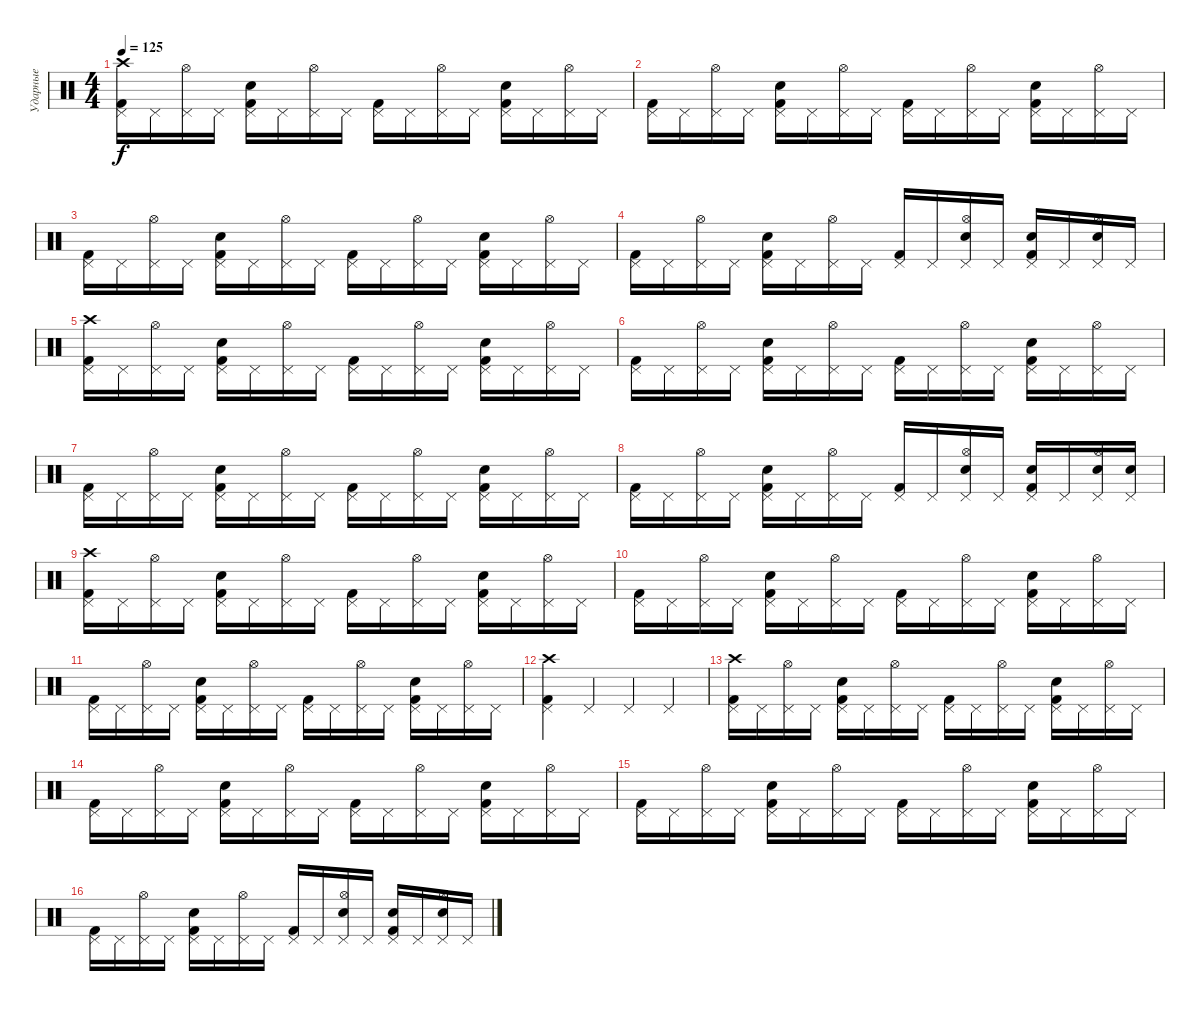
\track ("Ударные" "Ударные") {instrument percussion}
\staff {score}
\articulation defaults
\ts (4 4)
\tempo 125
\clef neutral
\ks c
("Kick (hit) 2" "Pedal Hi-Hat (hit)" "Crash high (hit)").16{dy f} "Pedal Hi-Hat (hit)".16 ("Pedal Hi-Hat (hit)" "Hi-Hat (open)").16 "Pedal Hi-Hat (hit)".16 ("Kick (hit) 2" "Pedal Hi-Hat (hit)" "Snare (hit) 2").16 "Pedal Hi-Hat (hit)".16 ("Pedal Hi-Hat (hit)" "Hi-Hat (open)").16 "Pedal Hi-Hat (hit)".16 ("Kick (hit) 2" "Pedal Hi-Hat (hit)").16 "Pedal Hi-Hat (hit)".16 ("Pedal Hi-Hat (hit)" "Hi-Hat (open)").16 "Pedal Hi-Hat (hit)".16 ("Kick (hit) 2" "Pedal Hi-Hat (hit)" "Snare (hit) 2").16 "Pedal Hi-Hat (hit)".16 ("Pedal Hi-Hat (hit)" "Hi-Hat (open)").16 "Pedal Hi-Hat (hit)".16 |
("Kick (hit) 2" "Pedal Hi-Hat (hit)").16 "Pedal Hi-Hat (hit)".16 ("Pedal Hi-Hat (hit)" "Hi-Hat (open)").16 "Pedal Hi-Hat (hit)".16 ("Kick (hit) 2" "Pedal Hi-Hat (hit)" "Snare (hit) 2").16 "Pedal Hi-Hat (hit)".16 ("Pedal Hi-Hat (hit)" "Hi-Hat (open)").16 "Pedal Hi-Hat (hit)".16 ("Kick (hit) 2" "Pedal Hi-Hat (hit)").16 "Pedal Hi-Hat (hit)".16 ("Pedal Hi-Hat (hit)" "Hi-Hat (open)").16 "Pedal Hi-Hat (hit)".16 ("Kick (hit) 2" "Pedal Hi-Hat (hit)" "Snare (hit) 2").16 "Pedal Hi-Hat (hit)".16 ("Pedal Hi-Hat (hit)" "Hi-Hat (open)").16 "Pedal Hi-Hat (hit)".16 |
("Kick (hit) 2" "Pedal Hi-Hat (hit)").16 "Pedal Hi-Hat (hit)".16 ("Pedal Hi-Hat (hit)" "Hi-Hat (open)").16 "Pedal Hi-Hat (hit)".16 ("Kick (hit) 2" "Pedal Hi-Hat (hit)" "Snare (hit) 2").16 "Pedal Hi-Hat (hit)".16 ("Pedal Hi-Hat (hit)" "Hi-Hat (open)").16 "Pedal Hi-Hat (hit)".16 ("Kick (hit) 2" "Pedal Hi-Hat (hit)").16 "Pedal Hi-Hat (hit)".16 ("Pedal Hi-Hat (hit)" "Hi-Hat (open)").16 "Pedal Hi-Hat (hit)".16 ("Kick (hit) 2" "Pedal Hi-Hat (hit)" "Snare (hit) 2").16 "Pedal Hi-Hat (hit)".16 ("Pedal Hi-Hat (hit)" "Hi-Hat (open)").16 "Pedal Hi-Hat (hit)".16 |
("Kick (hit) 2" "Pedal Hi-Hat (hit)").16 "Pedal Hi-Hat (hit)".16 ("Pedal Hi-Hat (hit)" "Hi-Hat (open)").16 "Pedal Hi-Hat (hit)".16 ("Kick (hit) 2" "Pedal Hi-Hat (hit)" "Snare (hit) 2").16 "Pedal Hi-Hat (hit)".16 ("Pedal Hi-Hat (hit)" "Hi-Hat (open)").16 "Pedal Hi-Hat (hit)".16 ("Kick (hit) 2" "Pedal Hi-Hat (hit)").16 "Pedal Hi-Hat (hit)".16 ("Pedal Hi-Hat (hit)" "Snare (hit) 2" "Hi-Hat (open)").16 "Pedal Hi-Hat (hit)".16 ("Kick (hit) 2" "Pedal Hi-Hat (hit)" "Snare (hit) 2").16 "Pedal Hi-Hat (hit)".16 ("Pedal Hi-Hat (hit)" "Snare (hit) 2" "Hi-Hat (open)").16 "Pedal Hi-Hat (hit)".16 |
("Kick (hit) 2" "Pedal Hi-Hat (hit)" "Crash high (hit)").16 "Pedal Hi-Hat (hit)".16 ("Pedal Hi-Hat (hit)" "Hi-Hat (open)").16 "Pedal Hi-Hat (hit)".16 ("Kick (hit) 2" "Pedal Hi-Hat (hit)" "Snare (hit) 2").16 "Pedal Hi-Hat (hit)".16 ("Pedal Hi-Hat (hit)" "Hi-Hat (open)").16 "Pedal Hi-Hat (hit)".16 ("Kick (hit) 2" "Pedal Hi-Hat (hit)").16 "Pedal Hi-Hat (hit)".16 ("Pedal Hi-Hat (hit)" "Hi-Hat (open)").16 "Pedal Hi-Hat (hit)".16 ("Kick (hit) 2" "Pedal Hi-Hat (hit)" "Snare (hit) 2").16 "Pedal Hi-Hat (hit)".16 ("Pedal Hi-Hat (hit)" "Hi-Hat (open)").16 "Pedal Hi-Hat (hit)".16 |
("Kick (hit) 2" "Pedal Hi-Hat (hit)").16 "Pedal Hi-Hat (hit)".16 ("Pedal Hi-Hat (hit)" "Hi-Hat (open)").16 "Pedal Hi-Hat (hit)".16 ("Kick (hit) 2" "Pedal Hi-Hat (hit)" "Snare (hit) 2").16 "Pedal Hi-Hat (hit)".16 ("Pedal Hi-Hat (hit)" "Hi-Hat (open)").16 "Pedal Hi-Hat (hit)".16 ("Kick (hit) 2" "Pedal Hi-Hat (hit)").16 "Pedal Hi-Hat (hit)".16 ("Pedal Hi-Hat (hit)" "Hi-Hat (open)").16 "Pedal Hi-Hat (hit)".16 ("Kick (hit) 2" "Pedal Hi-Hat (hit)" "Snare (hit) 2").16 "Pedal Hi-Hat (hit)".16 ("Pedal Hi-Hat (hit)" "Hi-Hat (open)").16 "Pedal Hi-Hat (hit)".16 |
("Kick (hit) 2" "Pedal Hi-Hat (hit)").16 "Pedal Hi-Hat (hit)".16 ("Pedal Hi-Hat (hit)" "Hi-Hat (open)").16 "Pedal Hi-Hat (hit)".16 ("Kick (hit) 2" "Pedal Hi-Hat (hit)" "Snare (hit) 2").16 "Pedal Hi-Hat (hit)".16 ("Pedal Hi-Hat (hit)" "Hi-Hat (open)").16 "Pedal Hi-Hat (hit)".16 ("Kick (hit) 2" "Pedal Hi-Hat (hit)").16 "Pedal Hi-Hat (hit)".16 ("Pedal Hi-Hat (hit)" "Hi-Hat (open)").16 "Pedal Hi-Hat (hit)".16 ("Kick (hit) 2" "Pedal Hi-Hat (hit)" "Snare (hit) 2").16 "Pedal Hi-Hat (hit)".16 ("Pedal Hi-Hat (hit)" "Hi-Hat (open)").16 "Pedal Hi-Hat (hit)".16 |
("Kick (hit) 2" "Pedal Hi-Hat (hit)").16 "Pedal Hi-Hat (hit)".16 ("Pedal Hi-Hat (hit)" "Hi-Hat (open)").16 "Pedal Hi-Hat (hit)".16 ("Kick (hit) 2" "Pedal Hi-Hat (hit)" "Snare (hit) 2").16 "Pedal Hi-Hat (hit)".16 ("Pedal Hi-Hat (hit)" "Hi-Hat (open)").16 "Pedal Hi-Hat (hit)".16 ("Kick (hit) 2" "Pedal Hi-Hat (hit)").16 "Pedal Hi-Hat (hit)".16 ("Pedal Hi-Hat (hit)" "Snare (hit) 2" "Hi-Hat (open)").16 "Pedal Hi-Hat (hit)".16 ("Kick (hit) 2" "Pedal Hi-Hat (hit)" "Snare (hit) 2").16 "Pedal Hi-Hat (hit)".16 ("Pedal Hi-Hat (hit)" "Snare (hit) 2" "Hi-Hat (open)").16 ("Pedal Hi-Hat (hit)" "Snare (hit) 2").16 |
("Kick (hit) 2" "Pedal Hi-Hat (hit)" "Crash high (hit)").16 "Pedal Hi-Hat (hit)".16 ("Pedal Hi-Hat (hit)" "Hi-Hat (open)").16 "Pedal Hi-Hat (hit)".16 ("Kick (hit) 2" "Pedal Hi-Hat (hit)" "Snare (hit) 2").16 "Pedal Hi-Hat (hit)".16 ("Pedal Hi-Hat (hit)" "Hi-Hat (open)").16 "Pedal Hi-Hat (hit)".16 ("Kick (hit) 2" "Pedal Hi-Hat (hit)").16 "Pedal Hi-Hat (hit)".16 ("Pedal Hi-Hat (hit)" "Hi-Hat (open)").16 "Pedal Hi-Hat (hit)".16 ("Kick (hit) 2" "Pedal Hi-Hat (hit)" "Snare (hit) 2").16 "Pedal Hi-Hat (hit)".16 ("Pedal Hi-Hat (hit)" "Hi-Hat (open)").16 "Pedal Hi-Hat (hit)".16 |
("Kick (hit) 2" "Pedal Hi-Hat (hit)").16 "Pedal Hi-Hat (hit)".16 ("Pedal Hi-Hat (hit)" "Hi-Hat (open)").16 "Pedal Hi-Hat (hit)".16 ("Kick (hit) 2" "Pedal Hi-Hat (hit)" "Snare (hit) 2").16 "Pedal Hi-Hat (hit)".16 ("Pedal Hi-Hat (hit)" "Hi-Hat (open)").16 "Pedal Hi-Hat (hit)".16 ("Kick (hit) 2" "Pedal Hi-Hat (hit)").16 "Pedal Hi-Hat (hit)".16 ("Pedal Hi-Hat (hit)" "Hi-Hat (open)").16 "Pedal Hi-Hat (hit)".16 ("Kick (hit) 2" "Pedal Hi-Hat (hit)" "Snare (hit) 2").16 "Pedal Hi-Hat (hit)".16 ("Pedal Hi-Hat (hit)" "Hi-Hat (open)").16 "Pedal Hi-Hat (hit)".16 |
("Kick (hit) 2" "Pedal Hi-Hat (hit)").16 "Pedal Hi-Hat (hit)".16 ("Pedal Hi-Hat (hit)" "Hi-Hat (open)").16 "Pedal Hi-Hat (hit)".16 ("Kick (hit) 2" "Pedal Hi-Hat (hit)" "Snare (hit) 2").16 "Pedal Hi-Hat (hit)".16 ("Pedal Hi-Hat (hit)" "Hi-Hat (open)").16 "Pedal Hi-Hat (hit)".16 ("Kick (hit) 2" "Pedal Hi-Hat (hit)").16 "Pedal Hi-Hat (hit)".16 ("Pedal Hi-Hat (hit)" "Hi-Hat (open)").16 "Pedal Hi-Hat (hit)".16 ("Kick (hit) 2" "Pedal Hi-Hat (hit)" "Snare (hit) 2").16 "Pedal Hi-Hat (hit)".16 ("Pedal Hi-Hat (hit)" "Hi-Hat (open)").16 "Pedal Hi-Hat (hit)".16 |
("Kick (hit) 2" "Pedal Hi-Hat (hit)" "Crash high (hit)").4 "Pedal Hi-Hat (hit)".4 "Pedal Hi-Hat (hit)".4 "Pedal Hi-Hat (hit)".4 |
("Kick (hit) 2" "Pedal Hi-Hat (hit)" "Crash high (hit)").16 "Pedal Hi-Hat (hit)".16 ("Pedal Hi-Hat (hit)" "Hi-Hat (open)").16 "Pedal Hi-Hat (hit)".16 ("Kick (hit) 2" "Pedal Hi-Hat (hit)" "Snare (hit) 2").16 "Pedal Hi-Hat (hit)".16 ("Pedal Hi-Hat (hit)" "Hi-Hat (open)").16 "Pedal Hi-Hat (hit)".16 ("Kick (hit) 2" "Pedal Hi-Hat (hit)").16 "Pedal Hi-Hat (hit)".16 ("Pedal Hi-Hat (hit)" "Hi-Hat (open)").16 "Pedal Hi-Hat (hit)".16 ("Kick (hit) 2" "Pedal Hi-Hat (hit)" "Snare (hit) 2").16 "Pedal Hi-Hat (hit)".16 ("Pedal Hi-Hat (hit)" "Hi-Hat (open)").16 "Pedal Hi-Hat (hit)".16 |
("Kick (hit) 2" "Pedal Hi-Hat (hit)").16 "Pedal Hi-Hat (hit)".16 ("Pedal Hi-Hat (hit)" "Hi-Hat (open)").16 "Pedal Hi-Hat (hit)".16 ("Kick (hit) 2" "Pedal Hi-Hat (hit)" "Snare (hit) 2").16 "Pedal Hi-Hat (hit)".16 ("Pedal Hi-Hat (hit)" "Hi-Hat (open)").16 "Pedal Hi-Hat (hit)".16 ("Kick (hit) 2" "Pedal Hi-Hat (hit)").16 "Pedal Hi-Hat (hit)".16 ("Pedal Hi-Hat (hit)" "Hi-Hat (open)").16 "Pedal Hi-Hat (hit)".16 ("Kick (hit) 2" "Pedal Hi-Hat (hit)" "Snare (hit) 2").16 "Pedal Hi-Hat (hit)".16 ("Pedal Hi-Hat (hit)" "Hi-Hat (open)").16 "Pedal Hi-Hat (hit)".16 |
("Kick (hit) 2" "Pedal Hi-Hat (hit)").16 "Pedal Hi-Hat (hit)".16 ("Pedal Hi-Hat (hit)" "Hi-Hat (open)").16 "Pedal Hi-Hat (hit)".16 ("Kick (hit) 2" "Pedal Hi-Hat (hit)" "Snare (hit) 2").16 "Pedal Hi-Hat (hit)".16 ("Pedal Hi-Hat (hit)" "Hi-Hat (open)").16 "Pedal Hi-Hat (hit)".16 ("Kick (hit) 2" "Pedal Hi-Hat (hit)").16 "Pedal Hi-Hat (hit)".16 ("Pedal Hi-Hat (hit)" "Hi-Hat (open)").16 "Pedal Hi-Hat (hit)".16 ("Kick (hit) 2" "Pedal Hi-Hat (hit)" "Snare (hit) 2").16 "Pedal Hi-Hat (hit)".16 ("Pedal Hi-Hat (hit)" "Hi-Hat (open)").16 "Pedal Hi-Hat (hit)".16 |
("Kick (hit) 2" "Pedal Hi-Hat (hit)").16 "Pedal Hi-Hat (hit)".16 ("Pedal Hi-Hat (hit)" "Hi-Hat (open)").16 "Pedal Hi-Hat (hit)".16 ("Kick (hit) 2" "Pedal Hi-Hat (hit)" "Snare (hit) 2").16 "Pedal Hi-Hat (hit)".16 ("Pedal Hi-Hat (hit)" "Hi-Hat (open)").16 "Pedal Hi-Hat (hit)".16 ("Kick (hit) 2" "Pedal Hi-Hat (hit)").16 "Pedal Hi-Hat (hit)".16 ("Pedal Hi-Hat (hit)" "Snare (hit) 2" "Hi-Hat (open)").16 "Pedal Hi-Hat (hit)".16 ("Kick (hit) 2" "Pedal Hi-Hat (hit)" "Snare (hit) 2").16 "Pedal Hi-Hat (hit)".16 ("Pedal Hi-Hat (hit)" "Snare (hit) 2" "Hi-Hat (open)").16 "Pedal Hi-Hat (hit)".16
